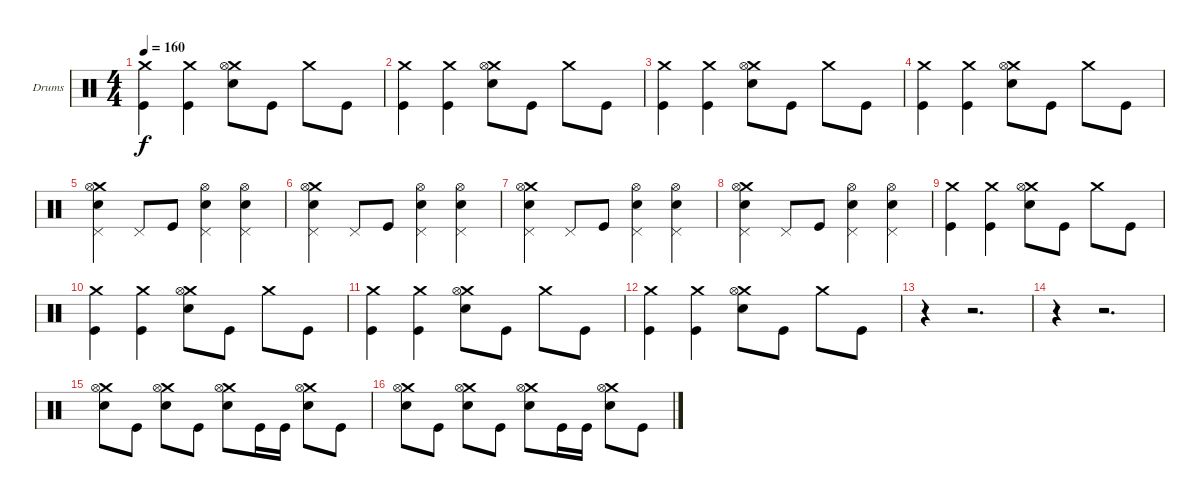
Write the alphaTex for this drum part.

\bracketExtendMode groupsimilarinstruments
\firstSystemTrackNameOrientation horizontal
\otherSystemsTrackNameOrientation horizontal
\track ("Lars Ulrich (Drum)" "Drums") {instrument percussion}
\staff {score}
\articulation defaults
\ts (4 4)
\tempo 160
\clef neutral
\ks c
("Crash medium (hit)" "Kick (hit)").4{dy f} ("Crash medium (hit)" "Kick (hit)").4 ("Crash medium (hit)" "Hi-Hat (open)" "Snare (hit) 2").8 "Kick (hit)".8 "Crash medium (hit)".8 "Kick (hit)".8 |
("Crash medium (hit)" "Kick (hit)").4 ("Crash medium (hit)" "Kick (hit)").4 ("Crash medium (hit)" "Hi-Hat (open)" "Snare (hit) 2").8 "Kick (hit)".8 "Crash medium (hit)".8 "Kick (hit)".8 |
("Crash medium (hit)" "Kick (hit)").4 ("Crash medium (hit)" "Kick (hit)").4 ("Crash medium (hit)" "Hi-Hat (open)" "Snare (hit) 2").8 "Kick (hit)".8 "Crash medium (hit)".8 "Kick (hit)".8 |
("Crash medium (hit)" "Kick (hit)").4 ("Crash medium (hit)" "Kick (hit)").4 ("Crash medium (hit)" "Hi-Hat (open)" "Snare (hit) 2").8 "Kick (hit)".8 "Crash medium (hit)".8 "Kick (hit)".8 |
("Crash medium (hit)" "Pedal Hi-Hat (hit)" "Hi-Hat (open)" "Snare (hit) 2").4 "Pedal Hi-Hat (hit)".8 "Kick (hit)".8 ("Pedal Hi-Hat (hit)" "Hi-Hat (open)" "Snare (hit) 2").4 ("Pedal Hi-Hat (hit)" "Hi-Hat (open)" "Snare (hit) 2").4 |
("Crash medium (hit)" "Pedal Hi-Hat (hit)" "Hi-Hat (open)" "Snare (hit) 2").4 "Pedal Hi-Hat (hit)".8 "Kick (hit)".8 ("Pedal Hi-Hat (hit)" "Hi-Hat (open)" "Snare (hit) 2").4 ("Pedal Hi-Hat (hit)" "Hi-Hat (open)" "Snare (hit) 2").4 |
("Crash medium (hit)" "Pedal Hi-Hat (hit)" "Hi-Hat (open)" "Snare (hit) 2").4 "Pedal Hi-Hat (hit)".8 "Kick (hit)".8 ("Pedal Hi-Hat (hit)" "Hi-Hat (open)" "Snare (hit) 2").4 ("Pedal Hi-Hat (hit)" "Hi-Hat (open)" "Snare (hit) 2").4 |
("Crash medium (hit)" "Pedal Hi-Hat (hit)" "Hi-Hat (open)" "Snare (hit) 2").4 "Pedal Hi-Hat (hit)".8 "Kick (hit)".8 ("Pedal Hi-Hat (hit)" "Hi-Hat (open)" "Snare (hit) 2").4 ("Pedal Hi-Hat (hit)" "Hi-Hat (open)" "Snare (hit) 2").4 |
("Crash medium (hit)" "Kick (hit)").4 ("Crash medium (hit)" "Kick (hit)").4 ("Crash medium (hit)" "Hi-Hat (open)" "Snare (hit) 2").8 "Kick (hit)".8 "Crash medium (hit)".8 "Kick (hit)".8 |
("Crash medium (hit)" "Kick (hit)").4 ("Crash medium (hit)" "Kick (hit)").4 ("Crash medium (hit)" "Hi-Hat (open)" "Snare (hit) 2").8 "Kick (hit)".8 "Crash medium (hit)".8 "Kick (hit)".8 |
("Crash medium (hit)" "Kick (hit)").4 ("Crash medium (hit)" "Kick (hit)").4 ("Crash medium (hit)" "Hi-Hat (open)" "Snare (hit) 2").8 "Kick (hit)".8 "Crash medium (hit)".8 "Kick (hit)".8 |
("Crash medium (hit)" "Kick (hit)").4 ("Crash medium (hit)" "Kick (hit)").4 ("Crash medium (hit)" "Hi-Hat (open)" "Snare (hit) 2").8 "Kick (hit)".8 "Crash medium (hit)".8 "Kick (hit)".8 |
r.4 r.2{d} |
r.4 r.2{d} |
("Crash medium (hit)" "Hi-Hat (open)" "Snare (hit) 2").8 "Kick (hit)".8 ("Crash medium (hit)" "Hi-Hat (open)" "Snare (hit) 2").8 "Kick (hit)".8 ("Crash medium (hit)" "Hi-Hat (open)" "Snare (hit) 2").8 "Kick (hit)".16 "Kick (hit)".16 ("Crash medium (hit)" "Hi-Hat (open)" "Snare (hit) 2").8 "Kick (hit)".8 |
("Crash medium (hit)" "Hi-Hat (open)" "Snare (hit) 2").8 "Kick (hit)".8 ("Crash medium (hit)" "Hi-Hat (open)" "Snare (hit) 2").8 "Kick (hit)".8 ("Crash medium (hit)" "Hi-Hat (open)" "Snare (hit) 2").8 "Kick (hit)".16 "Kick (hit)".16 ("Crash medium (hit)" "Hi-Hat (open)" "Snare (hit) 2").8 "Kick (hit)".8
